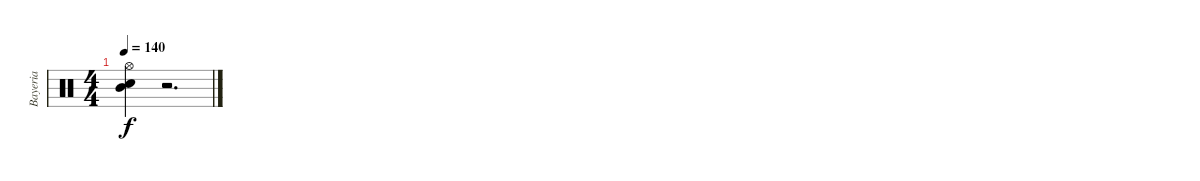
\track ("Bayeria" "Bayeria") {instrument percussion}
\staff {score}
\articulation defaults
\ts (4 4)
\tempo 140
\clef neutral
\ks c
("Hi-Hat (open)" "Mid Tom (hit)" "Electric Snare (hit)").4{dy f} r.2{d}
